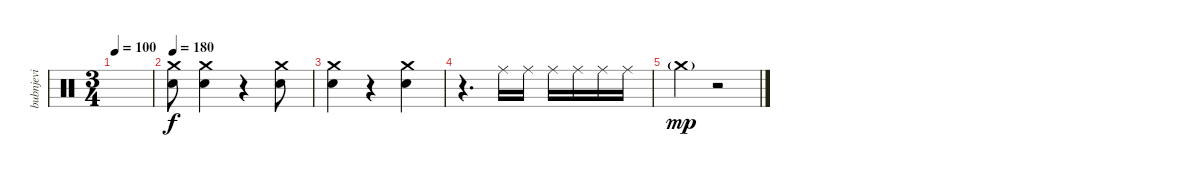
\track ("bubnjevi" "bubnjevi") {instrument percussion}
\staff {score}
\articulation defaults
\ts (3 4)
\tempo 100
\clef neutral
\ks c
|
\tempo 180
("Crash medium (hit)" "Snare (hit) 2").8 ("Crash medium (hit)" "Snare (hit) 2").4 r.4 ("Crash medium (hit)" "Snare (hit) 2").8 |
("Crash medium (hit)" "Snare (hit) 2").4 r.4 ("Crash medium (hit)" "Snare (hit) 2").4 |
r.4{d} "Ride (middle)".16 "Ride (middle)".16 "Ride (middle)".16 "Ride (middle)".16 "Ride (middle)".16 "Ride (middle)".16 |
"Crash medium (hit)"{g}.4{dy mp} r.2
